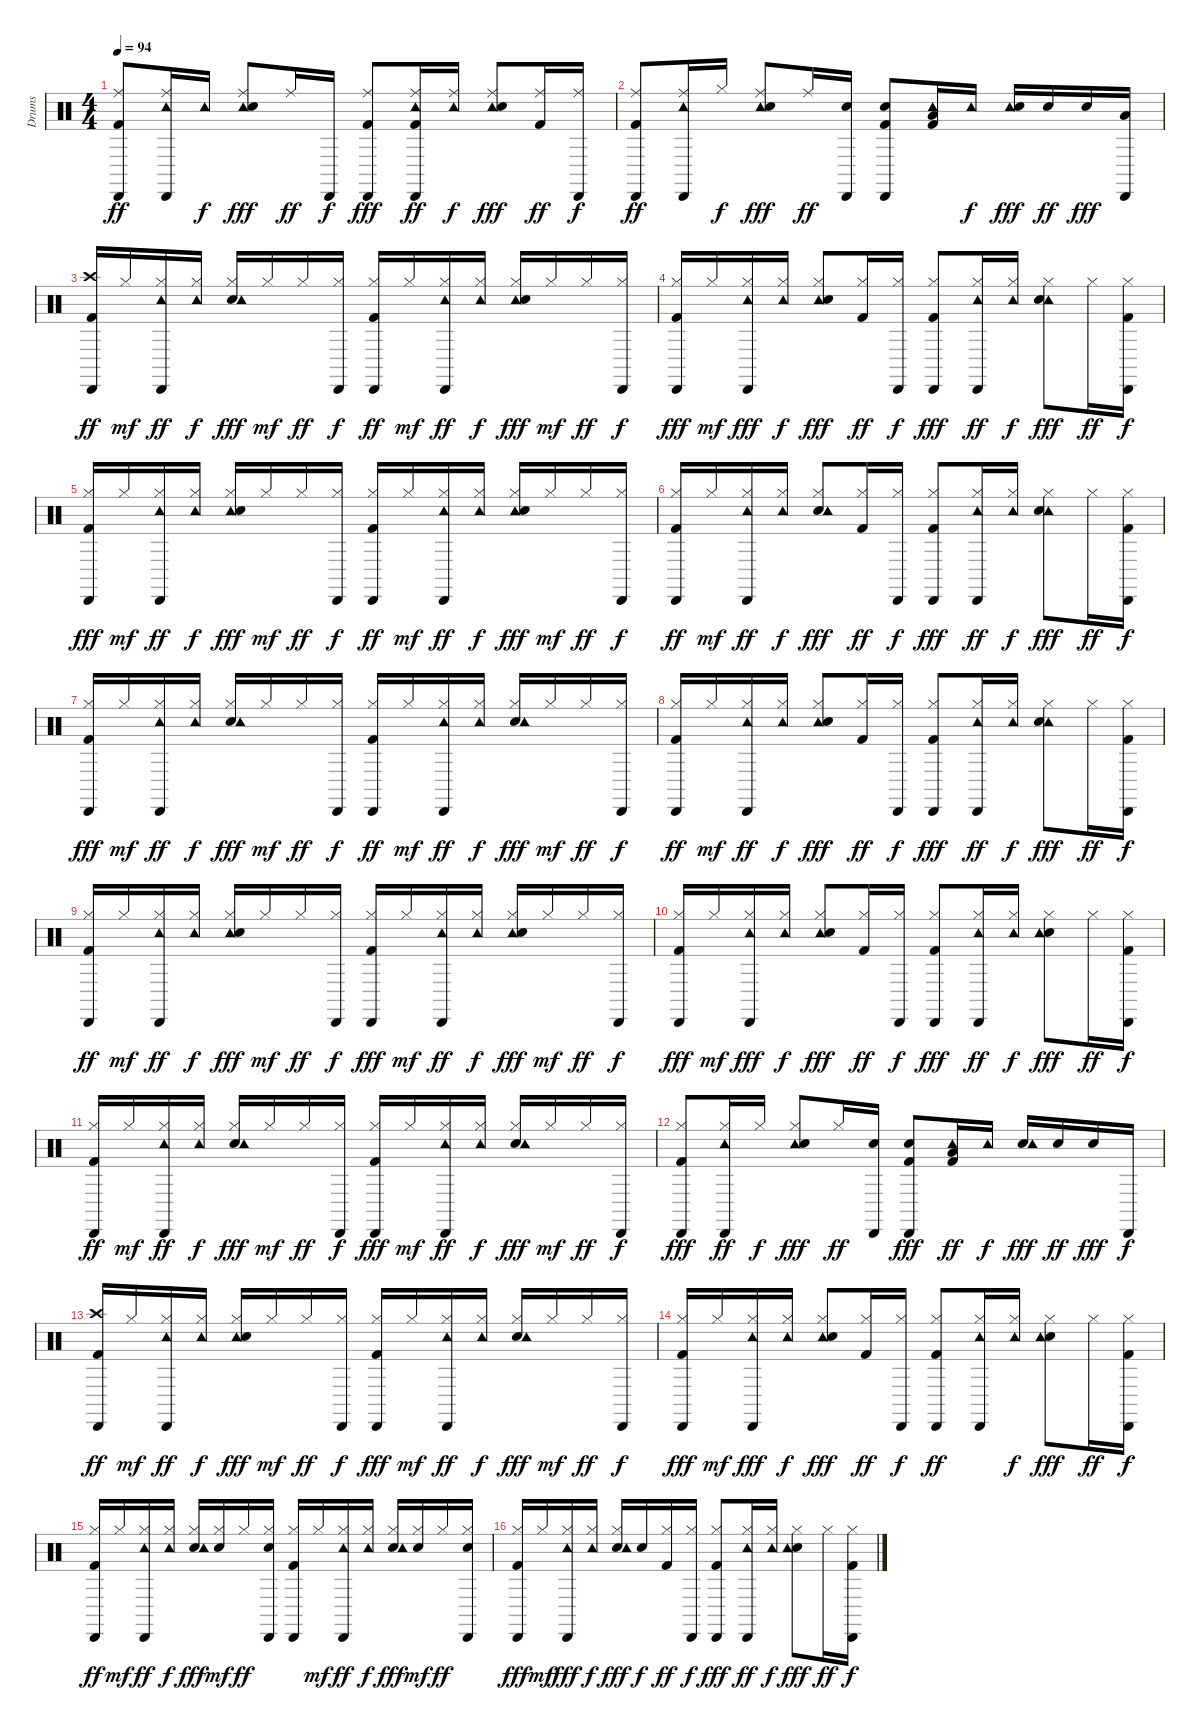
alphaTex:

\track ("Drums" "Drums") {instrument percussion}
\staff {score}
\articulation defaults
\ts (4 4)
\tempo 94
\clef neutral
\ks c
("Ride (middle)" "Kick (hit) 2" "Cabasa (hit)").8{dy ff} ("Cabasa (hit)" "Ride (middle)" "Tambourine (hit)").16 "Tambourine (hit)".16{dy f} ("Tambourine (hit)" "Snare (hit) 2" "Ride (middle)").8{dy fff} "Ride (middle)".16{dy ff} "Cabasa (hit)".16{dy f} ("Cabasa (hit)" "Kick (hit) 2" "Ride (middle)").8{dy fff} ("Ride (middle)" "Kick (hit) 2" "Tambourine (hit)" "Cabasa (hit)").16{dy ff} ("Ride (middle)" "Tambourine (hit)").16{dy f} ("Ride (middle)" "Tambourine (hit)" "Snare (hit) 2").8{dy fff} ("Kick (hit) 2" "Ride (middle)").16{dy ff} ("Cabasa (hit)" "Ride (middle)").16{dy f} |
("Ride (middle)" "Kick (hit) 2" "Cabasa (hit)").8{dy ff} ("Ride (middle)" "Cabasa (hit)" "Tambourine (hit)").16 "Hi-Hat (closed)".16{dy f} ("Tambourine (hit)" "Ride (middle)" "Snare (hit) 2").8{dy fff} "Ride (middle)".16{dy ff} ("Snare (hit) 2" "Cabasa (hit)").16 ("Snare (hit) 2" "Kick (hit) 2" "Cabasa (hit)").8 ("Low Tom (hit)" "Tambourine (hit)" "Kick (hit) 2").16 "Tambourine (hit)".16{dy f} ("Tambourine (hit)" "Snare (hit) 2").16{dy fff} "Snare (hit) 2".16{dy ff} "Snare (hit) 2".16{dy fff} ("Cabasa (hit)" "Low Floor Tom (hit)").16 |
("Crash high (hit)" "Kick (hit) 2" "Cabasa (hit)").16{dy ff} "Hi-Hat (closed)".16{dy mf} ("Cabasa (hit)" "Hi-Hat (closed)" "Tambourine (hit)").16{dy ff} ("Tambourine (hit)" "Hi-Hat (closed)").16{dy f} ("Hi-Hat (closed)" "Snare (hit) 2" "Tambourine (hit)").16{dy fff} "Hi-Hat (closed)".16{dy mf} "Hi-Hat (closed)".16{dy ff} ("Cabasa (hit)" "Hi-Hat (closed)").16{dy f} ("Kick (hit) 2" "Hi-Hat (closed)" "Cabasa (hit)").16{dy ff} "Hi-Hat (closed)".16{dy mf} ("Hi-Hat (closed)" "Cabasa (hit)" "Tambourine (hit)").16{dy ff} ("Tambourine (hit)" "Hi-Hat (closed)").16{dy f} ("Tambourine (hit)" "Snare (hit) 2" "Hi-Hat (closed)").16{dy fff} "Hi-Hat (closed)".16{dy mf} "Hi-Hat (closed)".16{dy ff} ("Hi-Hat (closed)" "Cabasa (hit)").16{dy f} |
("Kick (hit) 2" "Cabasa (hit)" "Hi-Hat (closed)").16{dy fff} "Hi-Hat (closed)".16{dy mf} ("Hi-Hat (closed)" "Cabasa (hit)" "Tambourine (hit)").16{dy fff} ("Hi-Hat (closed)" "Tambourine (hit)").16{dy f} ("Hi-Hat (closed)" "Tambourine (hit)" "Snare (hit) 2").8{dy fff} ("Kick (hit) 2" "Hi-Hat (closed)").16{dy ff} ("Cabasa (hit)" "Hi-Hat (closed)").16{dy f} ("Cabasa (hit)" "Hi-Hat (closed)" "Kick (hit) 2").8{dy fff} ("Hi-Hat (closed)" "Cabasa (hit)" "Tambourine (hit)").16{dy ff} ("Tambourine (hit)" "Hi-Hat (closed)").16{dy f} ("Tambourine (hit)" "Snare (hit) 2" "Hi-Hat (closed)").8{dy fff} "Hi-Hat (closed)".16{dy ff} ("Cabasa (hit)" "Hi-Hat (closed)" "Kick (hit) 2").16{dy f} |
("Cabasa (hit)" "Hi-Hat (closed)" "Kick (hit) 2").16{dy fff} "Hi-Hat (closed)".16{dy mf} ("Cabasa (hit)" "Hi-Hat (closed)" "Tambourine (hit)").16{dy ff} ("Tambourine (hit)" "Hi-Hat (closed)").16{dy f} ("Tambourine (hit)" "Snare (hit) 2" "Hi-Hat (closed)").16{dy fff} "Hi-Hat (closed)".16{dy mf} "Hi-Hat (closed)".16{dy ff} ("Cabasa (hit)" "Hi-Hat (closed)").16{dy f} ("Hi-Hat (closed)" "Kick (hit) 2" "Cabasa (hit)").16{dy ff} "Hi-Hat (closed)".16{dy mf} ("Tambourine (hit)" "Hi-Hat (closed)" "Cabasa (hit)").16{dy ff} ("Hi-Hat (closed)" "Tambourine (hit)").16{dy f} ("Tambourine (hit)" "Hi-Hat (closed)" "Snare (hit) 2").16{dy fff} "Hi-Hat (closed)".16{dy mf} "Hi-Hat (closed)".16{dy ff} ("Cabasa (hit)" "Hi-Hat (closed)").16{dy f} |
("Kick (hit) 2" "Hi-Hat (closed)" "Cabasa (hit)").16{dy ff} "Hi-Hat (closed)".16{dy mf} ("Tambourine (hit)" "Cabasa (hit)" "Hi-Hat (closed)").16{dy ff} ("Hi-Hat (closed)" "Tambourine (hit)").16{dy f} ("Snare (hit) 2" "Hi-Hat (closed)" "Tambourine (hit)").8{dy fff} ("Kick (hit) 2" "Hi-Hat (closed)").16{dy ff} ("Cabasa (hit)" "Hi-Hat (closed)").16{dy f} ("Cabasa (hit)" "Kick (hit) 2" "Hi-Hat (closed)").8{dy fff} ("Cabasa (hit)" "Tambourine (hit)" "Hi-Hat (closed)").16{dy ff} ("Hi-Hat (closed)" "Tambourine (hit)").16{dy f} ("Hi-Hat (closed)" "Tambourine (hit)" "Snare (hit) 2").8{dy fff} "Hi-Hat (closed)".16{dy ff} ("Cabasa (hit)" "Kick (hit) 2" "Hi-Hat (closed)").16{dy f} |
("Hi-Hat (closed)" "Cabasa (hit)" "Kick (hit) 2").16{dy fff} "Hi-Hat (closed)".16{dy mf} ("Tambourine (hit)" "Cabasa (hit)" "Hi-Hat (closed)").16{dy ff} ("Hi-Hat (closed)" "Tambourine (hit)").16{dy f} ("Snare (hit) 2" "Tambourine (hit)" "Hi-Hat (closed)").16{dy fff} "Hi-Hat (closed)".16{dy mf} "Hi-Hat (closed)".16{dy ff} ("Cabasa (hit)" "Hi-Hat (closed)").16{dy f} ("Hi-Hat (closed)" "Kick (hit) 2" "Cabasa (hit)").16{dy ff} "Hi-Hat (closed)".16{dy mf} ("Hi-Hat (closed)" "Tambourine (hit)" "Cabasa (hit)").16{dy ff} ("Tambourine (hit)" "Hi-Hat (closed)").16{dy f} ("Hi-Hat (closed)" "Snare (hit) 2" "Tambourine (hit)").16{dy fff} "Hi-Hat (closed)".16{dy mf} "Hi-Hat (closed)".16{dy ff} ("Cabasa (hit)" "Hi-Hat (closed)").16{dy f} |
("Hi-Hat (closed)" "Kick (hit) 2" "Cabasa (hit)").16{dy ff} "Hi-Hat (closed)".16{dy mf} ("Tambourine (hit)" "Hi-Hat (closed)" "Cabasa (hit)").16{dy ff} ("Tambourine (hit)" "Hi-Hat (closed)").16{dy f} ("Hi-Hat (closed)" "Tambourine (hit)" "Snare (hit) 2").8{dy fff} ("Kick (hit) 2" "Hi-Hat (closed)").16{dy ff} ("Hi-Hat (closed)" "Cabasa (hit)").16{dy f} ("Kick (hit) 2" "Cabasa (hit)" "Hi-Hat (closed)").8{dy fff} ("Tambourine (hit)" "Hi-Hat (closed)" "Cabasa (hit)").16{dy ff} ("Hi-Hat (closed)" "Tambourine (hit)").16{dy f} ("Tambourine (hit)" "Snare (hit) 2" "Hi-Hat (closed)").8{dy fff} "Hi-Hat (closed)".16{dy ff} ("Cabasa (hit)" "Kick (hit) 2" "Hi-Hat (closed)").16{dy f} |
("Hi-Hat (closed)" "Kick (hit) 2" "Cabasa (hit)").16{dy ff} "Hi-Hat (closed)".16{dy mf} ("Cabasa (hit)" "Tambourine (hit)" "Hi-Hat (closed)").16{dy ff} ("Tambourine (hit)" "Hi-Hat (closed)").16{dy f} ("Hi-Hat (closed)" "Tambourine (hit)" "Snare (hit) 2").16{dy fff} "Hi-Hat (closed)".16{dy mf} "Hi-Hat (closed)".16{dy ff} ("Cabasa (hit)" "Hi-Hat (closed)").16{dy f} ("Cabasa (hit)" "Hi-Hat (closed)" "Kick (hit) 2").16{dy fff} "Hi-Hat (closed)".16{dy mf} ("Hi-Hat (closed)" "Cabasa (hit)" "Tambourine (hit)").16{dy ff} ("Tambourine (hit)" "Hi-Hat (closed)").16{dy f} ("Tambourine (hit)" "Snare (hit) 2" "Hi-Hat (closed)").16{dy fff} "Hi-Hat (closed)".16{dy mf} "Hi-Hat (closed)".16{dy ff} ("Cabasa (hit)" "Hi-Hat (closed)").16{dy f} |
("Hi-Hat (closed)" "Cabasa (hit)" "Kick (hit) 2").16{dy fff} "Hi-Hat (closed)".16{dy mf} ("Hi-Hat (closed)" "Cabasa (hit)" "Tambourine (hit)").16{dy fff} ("Hi-Hat (closed)" "Tambourine (hit)").16{dy f} ("Hi-Hat (closed)" "Tambourine (hit)" "Snare (hit) 2").8{dy fff} ("Hi-Hat (closed)" "Kick (hit) 2").16{dy ff} ("Cabasa (hit)" "Hi-Hat (closed)").16{dy f} ("Kick (hit) 2" "Cabasa (hit)" "Hi-Hat (closed)").8{dy fff} ("Tambourine (hit)" "Cabasa (hit)" "Hi-Hat (closed)").16{dy ff} ("Hi-Hat (closed)" "Tambourine (hit)").16{dy f} ("Hi-Hat (closed)" "Snare (hit) 2" "Tambourine (hit)").8{dy fff} "Hi-Hat (closed)".16{dy ff} ("Cabasa (hit)" "Kick (hit) 2" "Hi-Hat (closed)").16{dy f} |
("Kick (hit) 2" "Hi-Hat (closed)" "Cabasa (hit)").16{dy ff} "Hi-Hat (closed)".16{dy mf} ("Tambourine (hit)" "Hi-Hat (closed)" "Cabasa (hit)").16{dy ff} ("Hi-Hat (closed)" "Tambourine (hit)").16{dy f} ("Snare (hit) 2" "Tambourine (hit)" "Hi-Hat (closed)").16{dy fff} "Hi-Hat (closed)".16{dy mf} "Hi-Hat (closed)".16{dy ff} ("Cabasa (hit)" "Hi-Hat (closed)").16{dy f} ("Kick (hit) 2" "Cabasa (hit)" "Hi-Hat (closed)").16{dy fff} "Hi-Hat (closed)".16{dy mf} ("Tambourine (hit)" "Hi-Hat (closed)" "Cabasa (hit)").16{dy ff} ("Tambourine (hit)" "Hi-Hat (closed)").16{dy f} ("Hi-Hat (closed)" "Snare (hit) 2" "Tambourine (hit)").16{dy fff} "Hi-Hat (closed)".16{dy mf} "Hi-Hat (closed)".16{dy ff} ("Cabasa (hit)" "Hi-Hat (closed)").16{dy f} |
("Kick (hit) 2" "Cabasa (hit)" "Hi-Hat (closed)").8{dy fff} ("Cabasa (hit)" "Tambourine (hit)" "Hi-Hat (closed)").16{dy ff} "Hi-Hat (closed)".16{dy f} ("Tambourine (hit)" "Hi-Hat (closed)" "Snare (hit) 2").8{dy fff} "Hi-Hat (closed)".16{dy ff} ("Snare (hit) 2" "Cabasa (hit)").16 ("Cabasa (hit)" "Kick (hit) 2" "Snare (hit) 2").8{dy fff} ("Low Tom (hit)" "Kick (hit) 2" "Tambourine (hit)").16{dy ff} "Tambourine (hit)".16{dy f} ("Snare (hit) 2" "Tambourine (hit)").16{dy fff} "Snare (hit) 2".16{dy ff} "Snare (hit) 2".16{dy fff} "Cabasa (hit)".16{dy f} |
("Kick (hit) 2" "Crash high (hit)" "Cabasa (hit)").16{dy ff} "Hi-Hat (closed)".16{dy mf} ("Tambourine (hit)" "Hi-Hat (closed)" "Cabasa (hit)").16{dy ff} ("Hi-Hat (closed)" "Tambourine (hit)").16{dy f} ("Hi-Hat (closed)" "Tambourine (hit)" "Snare (hit) 2").16{dy fff} "Hi-Hat (closed)".16{dy mf} "Hi-Hat (closed)".16{dy ff} ("Hi-Hat (closed)" "Cabasa (hit)").16{dy f} ("Kick (hit) 2" "Cabasa (hit)" "Hi-Hat (closed)").16{dy fff} "Hi-Hat (closed)".16{dy mf} ("Tambourine (hit)" "Cabasa (hit)" "Hi-Hat (closed)").16{dy ff} ("Tambourine (hit)" "Hi-Hat (closed)").16{dy f} ("Snare (hit) 2" "Tambourine (hit)" "Hi-Hat (closed)").16{dy fff} "Hi-Hat (closed)".16{dy mf} "Hi-Hat (closed)".16{dy ff} ("Cabasa (hit)" "Hi-Hat (closed)").16{dy f} |
("Kick (hit) 2" "Cabasa (hit)" "Hi-Hat (closed)").16{dy fff} "Hi-Hat (closed)".16{dy mf} ("Hi-Hat (closed)" "Cabasa (hit)" "Tambourine (hit)").16{dy fff} ("Tambourine (hit)" "Hi-Hat (closed)").16{dy f} ("Hi-Hat (closed)" "Tambourine (hit)" "Snare (hit) 2").8{dy fff} ("Hi-Hat (closed)" "Kick (hit) 2").16{dy ff} ("Hi-Hat (closed)" "Cabasa (hit)").16{dy f} ("Hi-Hat (closed)" "Kick (hit) 2" "Cabasa (hit)").8{dy ff} ("Cabasa (hit)" "Hi-Hat (closed)" "Tambourine (hit)").16 ("Hi-Hat (closed)" "Tambourine (hit)").16{dy f} ("Hi-Hat (closed)" "Snare (hit) 2" "Tambourine (hit)").8{dy fff} "Hi-Hat (closed)".16{dy ff} ("Kick (hit) 2" "Hi-Hat (closed)" "Cabasa (hit)").16{dy f} |
("Hi-Hat (closed)" "Kick (hit) 2" "Cabasa (hit)").16{dy ff} "Hi-Hat (closed)".16{dy mf} ("Hi-Hat (closed)" "Tambourine (hit)" "Cabasa (hit)").16{dy ff} ("Tambourine (hit)" "Hi-Hat (closed)").16{dy f} ("Snare (hit) 2" "Hi-Hat (closed)" "Tambourine (hit)").16{dy fff} ("Snare (hit) 2" "Hi-Hat (closed)").16{dy mf} "Hi-Hat (closed)".16{dy ff} ("Snare (hit) 2" "Hi-Hat (closed)" "Cabasa (hit)").16 ("Kick (hit) 2" "Hi-Hat (closed)" "Cabasa (hit)").16 "Hi-Hat (closed)".16{dy mf} ("Hi-Hat (closed)" "Cabasa (hit)" "Tambourine (hit)").16{dy ff} ("Tambourine (hit)" "Hi-Hat (closed)").16{dy f} ("Hi-Hat (closed)" "Snare (hit) 2" "Tambourine (hit)").16{dy fff} ("Hi-Hat (closed)" "Snare (hit) 2").16{dy mf} "Hi-Hat (closed)".16{dy ff} ("Cabasa (hit)" "Snare (hit) 2" "Hi-Hat (closed)").16 |
("Cabasa (hit)" "Hi-Hat (closed)" "Kick (hit) 2").16{dy fff} "Hi-Hat (closed)".16{dy mf} ("Cabasa (hit)" "Hi-Hat (closed)" "Tambourine (hit)").16{dy fff} ("Hi-Hat (closed)" "Tambourine (hit)").16{dy f} ("Hi-Hat (closed)" "Snare (hit) 2" "Tambourine (hit)").16{dy fff} "Snare (hit) 2".16{dy f} ("Kick (hit) 2" "Hi-Hat (closed)").16{dy ff} ("Hi-Hat (closed)" "Cabasa (hit)").16{dy f} ("Cabasa (hit)" "Kick (hit) 2" "Hi-Hat (closed)").8{dy fff} ("Cabasa (hit)" "Tambourine (hit)" "Hi-Hat (closed)").16{dy ff} ("Tambourine (hit)" "Hi-Hat (closed)").16{dy f} ("Snare (hit) 2" "Tambourine (hit)" "Hi-Hat (closed)").8{dy fff} "Hi-Hat (closed)".16{dy ff} ("Cabasa (hit)" "Hi-Hat (closed)" "Kick (hit) 2").16{dy f}
